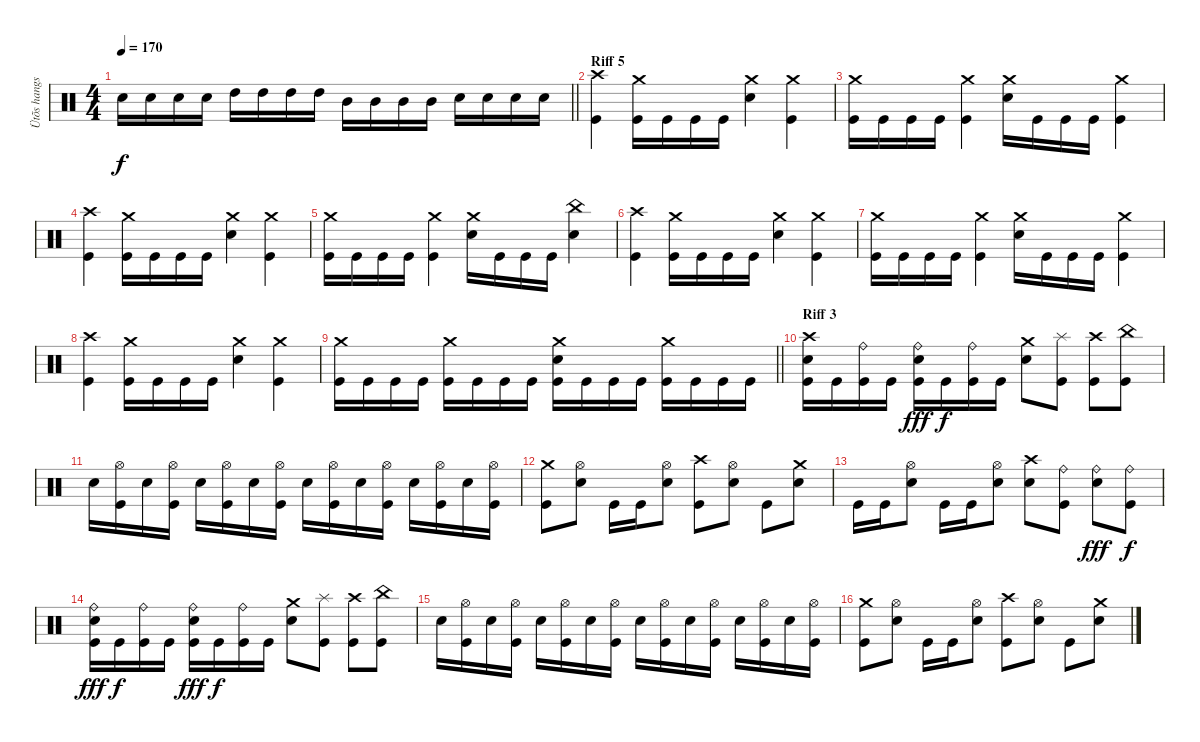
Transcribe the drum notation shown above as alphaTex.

\track ("Ütõs hangszer" "Ütõs hangs") {instrument percussion}
\staff {score}
\articulation defaults
\ts (4 4)
\tempo 170
\clef neutral
\barLineRight lightlight
\ks c "Electric Snare (hit)".16{dy f} "Electric Snare (hit)".16 "Electric Snare (hit)".16 "Electric Snare (hit)".16 "High Tom (hit)".16 "High Tom (hit)".16 "High Tom (hit)".16 "High Tom (hit)".16 "Mid Tom (hit)".16 "Mid Tom (hit)".16 "Mid Tom (hit)".16 "Mid Tom (hit)".16 "Electric Snare (hit)".16 "Electric Snare (hit)".16 "Electric Snare (hit)".16 "Electric Snare (hit)".16
|
\section ("" "Riff 5")
("Crash high (hit)" "Kick (hit)").4 ("Crash medium (hit)" "Kick (hit)").16 "Kick (hit)".16 "Kick (hit)".16 "Kick (hit)".16 ("Crash medium (hit)" "Electric Snare (hit)").4 ("Crash medium (hit)" "Kick (hit)").4 |
("Crash medium (hit)" "Kick (hit)").16 "Kick (hit)".16 "Kick (hit)".16 "Kick (hit)".16 ("Crash medium (hit)" "Kick (hit)").4 ("Crash medium (hit)" "Electric Snare (hit)").16 "Kick (hit)".16 "Kick (hit)".16 "Kick (hit)".16 ("Crash medium (hit)" "Kick (hit)").4 |
("Crash high (hit)" "Kick (hit)").4 ("Crash medium (hit)" "Kick (hit)").16 "Kick (hit)".16 "Kick (hit)".16 "Kick (hit)".16 ("Crash medium (hit)" "Electric Snare (hit)").4 ("Crash medium (hit)" "Kick (hit)").4 |
("Crash medium (hit)" "Kick (hit)").16 "Kick (hit)".16 "Kick (hit)".16 "Kick (hit)".16 ("Crash medium (hit)" "Kick (hit)").4 ("Crash medium (hit)" "Electric Snare (hit)").16 "Kick (hit)".16 "Kick (hit)".16 "Kick (hit)".16 ("China (hit)" "Electric Snare (hit)").4 |
("Crash high (hit)" "Kick (hit)").4 ("Crash medium (hit)" "Kick (hit)").16 "Kick (hit)".16 "Kick (hit)".16 "Kick (hit)".16 ("Crash medium (hit)" "Electric Snare (hit)").4 ("Crash medium (hit)" "Kick (hit)").4 |
("Crash medium (hit)" "Kick (hit)").16 "Kick (hit)".16 "Kick (hit)".16 "Kick (hit)".16 ("Crash medium (hit)" "Kick (hit)").4 ("Crash medium (hit)" "Electric Snare (hit)").16 "Kick (hit)".16 "Kick (hit)".16 "Kick (hit)".16 ("Crash medium (hit)" "Kick (hit)").4 |
("Crash high (hit)" "Kick (hit)").4 ("Crash medium (hit)" "Kick (hit)").16 "Kick (hit)".16 "Kick (hit)".16 "Kick (hit)".16 ("Crash medium (hit)" "Electric Snare (hit)").4 ("Crash medium (hit)" "Kick (hit)").4 |
\barLineRight lightlight
("Crash medium (hit)" "Kick (hit)").16 "Kick (hit)".16 "Kick (hit)".16 "Kick (hit)".16 ("Crash medium (hit)" "Kick (hit)").16 "Kick (hit)".16 "Kick (hit)".16 "Kick (hit)".16 ("Crash medium (hit)" "Electric Snare (hit)" "Kick (hit)").16 "Kick (hit)".16 "Kick (hit)".16 "Kick (hit)".16 ("Crash medium (hit)" "Kick (hit)").16 "Kick (hit)".16 "Kick (hit)".16 "Kick (hit)".16 |
\section ("" "Riff 3")
("Crash high (hit)" "Electric Snare (hit)" "Kick (hit)").16 "Kick (hit)".16 ("Ride (bell)" "Kick (hit)").16 "Kick (hit)".16 ("Ride (bell)" "Electric Snare (hit)" "Kick (hit)").16{dy fff} "Kick (hit)".16{dy f} ("Ride (bell)" "Kick (hit)").16 "Kick (hit)".16 ("Crash medium (hit)" "Electric Snare (hit)").8 ("Splash (hit)" "Kick (hit)").8 ("Crash high (hit)" "Kick (hit)").8 ("China (hit)" "Kick (hit)").8 |
"Electric Snare (hit)".16 ("Hi-Hat (open)" "Kick (hit)").16 "Electric Snare (hit)".16 ("Hi-Hat (open)" "Kick (hit)").16 "Electric Snare (hit)".16 ("Hi-Hat (open)" "Kick (hit)").16 "Electric Snare (hit)".16 ("Hi-Hat (open)" "Kick (hit)").16 "Electric Snare (hit)".16 ("Hi-Hat (open)" "Kick (hit)").16 "Electric Snare (hit)".16 ("Hi-Hat (open)" "Kick (hit)").16 "Electric Snare (hit)".16 ("Hi-Hat (open)" "Kick (hit)").16 "Electric Snare (hit)".16 ("Hi-Hat (open)" "Kick (hit)").16 |
("Crash medium (hit)" "Kick (hit)").8 ("Hi-Hat (open)" "Electric Snare (hit)").8 "Kick (hit)".16 "Kick (hit)".16 ("Hi-Hat (open)" "Electric Snare (hit)").8 ("Crash high (hit)" "Kick (hit)").8 ("Hi-Hat (open)" "Electric Snare (hit)").8 "Kick (hit)".8 ("Crash medium (hit)" "Electric Snare (hit)").8 |
"Kick (hit)".16 "Kick (hit)".16 ("Hi-Hat (open)" "Electric Snare (hit)").8 "Kick (hit)".16 "Kick (hit)".16 ("Hi-Hat (open)" "Electric Snare (hit)").8 ("Crash high (hit)" "Electric Snare (hit)").8 ("Ride (bell)" "Kick (hit)").8 ("Ride (bell)" "Electric Snare (hit)").8{dy fff} ("Ride (bell)" "Kick (hit)").8{dy f} |
("Ride (bell)" "Electric Snare (hit)" "Kick (hit)").16{dy fff} "Kick (hit)".16{dy f} ("Ride (bell)" "Kick (hit)").16 "Kick (hit)".16 ("Ride (bell)" "Electric Snare (hit)" "Kick (hit)").16{dy fff} "Kick (hit)".16{dy f} ("Ride (bell)" "Kick (hit)").16 "Kick (hit)".16 ("Crash medium (hit)" "Electric Snare (hit)").8 ("Splash (hit)" "Kick (hit)").8 ("Crash high (hit)" "Kick (hit)").8 ("China (hit)" "Kick (hit)").8 |
"Electric Snare (hit)".16 ("Hi-Hat (open)" "Kick (hit)").16 "Electric Snare (hit)".16 ("Hi-Hat (open)" "Kick (hit)").16 "Electric Snare (hit)".16 ("Hi-Hat (open)" "Kick (hit)").16 "Electric Snare (hit)".16 ("Hi-Hat (open)" "Kick (hit)").16 "Electric Snare (hit)".16 ("Hi-Hat (open)" "Kick (hit)").16 "Electric Snare (hit)".16 ("Hi-Hat (open)" "Kick (hit)").16 "Electric Snare (hit)".16 ("Hi-Hat (open)" "Kick (hit)").16 "Electric Snare (hit)".16 ("Hi-Hat (open)" "Kick (hit)").16 |
("Crash medium (hit)" "Kick (hit)").8 ("Hi-Hat (open)" "Electric Snare (hit)").8 "Kick (hit)".16 "Kick (hit)".16 ("Hi-Hat (open)" "Electric Snare (hit)").8 ("Crash high (hit)" "Kick (hit)").8 ("Hi-Hat (open)" "Electric Snare (hit)").8 "Kick (hit)".8 ("Crash medium (hit)" "Electric Snare (hit)").8
